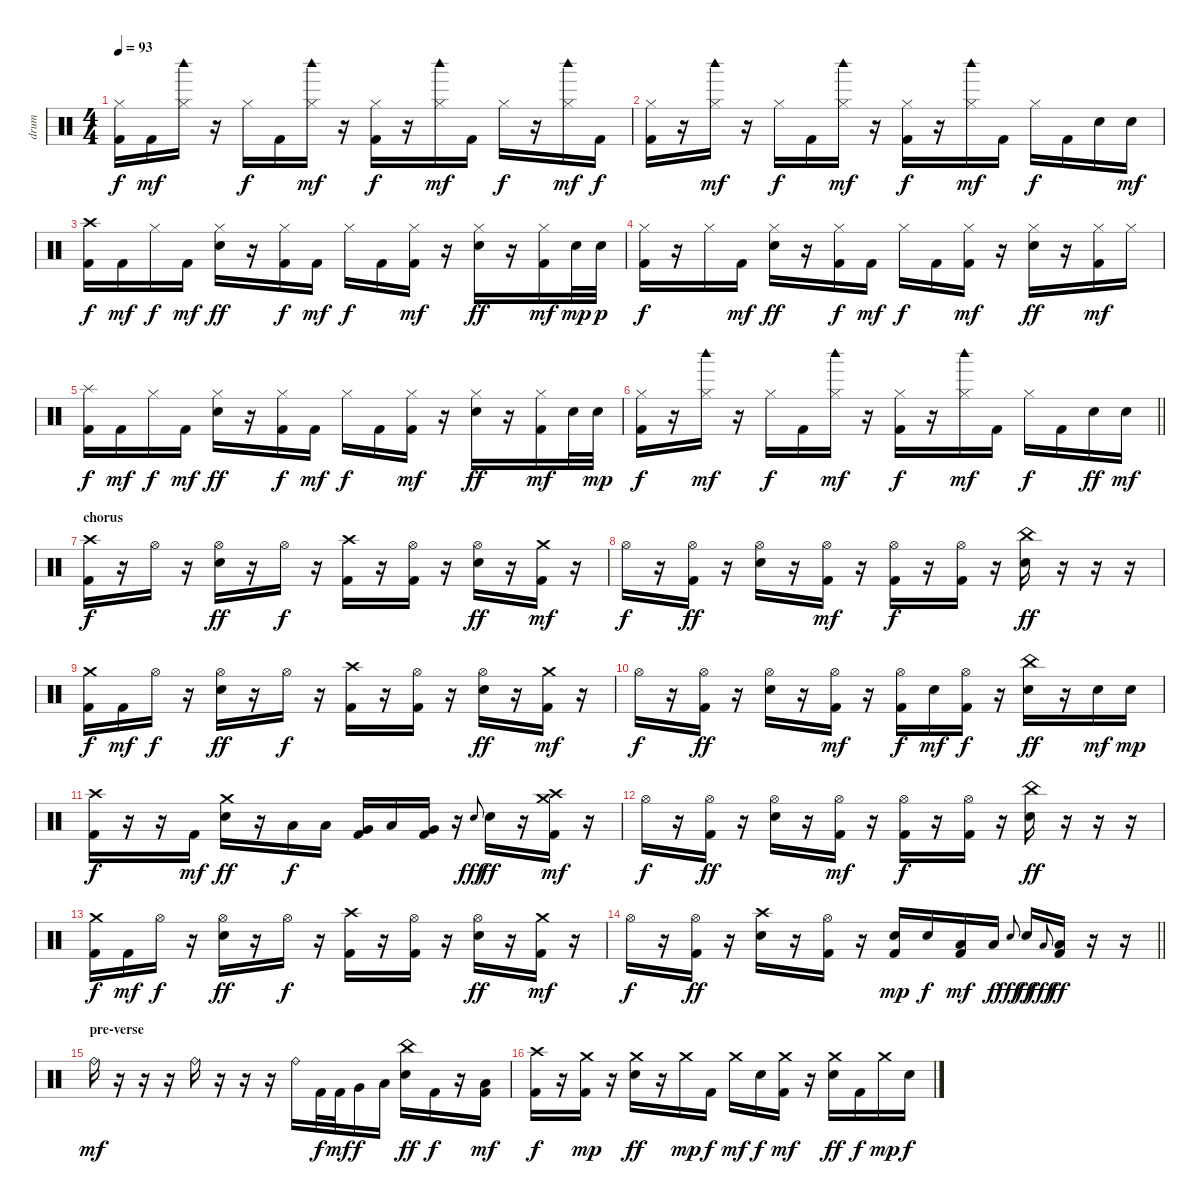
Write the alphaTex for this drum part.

\track ("drum" "drum") {instrument percussion}
\staff {score}
\articulation defaults
\ts (4 4)
\tempo 93
\clef neutral
\ks c
("Hi-Hat (closed)" "Kick (hit) 2").16{dy f} "Kick (hit) 2".16{dy mf} ("Hi-Hat (closed)" "Woodblock high (hit)").16 r.16 "Hi-Hat (closed)".16{dy f} "Kick (hit) 2".16 ("Hi-Hat (closed)" "Woodblock high (hit)").16{dy mf} r.16 ("Hi-Hat (closed)" "Kick (hit) 2").16{dy f} r.16 ("Hi-Hat (closed)" "Woodblock high (hit)").16{dy mf} "Kick (hit) 2".16 "Hi-Hat (closed)".16{dy f} r.16 ("Hi-Hat (closed)" "Woodblock high (hit)").16{dy mf} "Kick (hit) 2".16{dy f} |
("Hi-Hat (closed)" "Kick (hit) 2").16 r.16 ("Hi-Hat (closed)" "Woodblock high (hit)").16{dy mf} r.16 "Hi-Hat (closed)".16{dy f} "Kick (hit) 2".16 ("Hi-Hat (closed)" "Woodblock high (hit)").16{dy mf} r.16 ("Hi-Hat (closed)" "Kick (hit) 2").16{dy f} r.16 ("Hi-Hat (closed)" "Woodblock high (hit)").16{dy mf} "Kick (hit) 2".16 "Hi-Hat (closed)".16{dy f} "Kick (hit) 2".16 "Electric Snare (hit)".16 "Electric Snare (hit)".16{dy mf} |
("Crash high (hit)" "Kick (hit) 2").16{dy f} "Kick (hit) 2".16{dy mf} "Hi-Hat (closed)".16{dy f} "Kick (hit) 2".16{dy mf} ("Hi-Hat (closed)" "Electric Snare (hit)").16{dy ff} r.16 ("Hi-Hat (closed)" "Kick (hit) 2").16{dy f} "Kick (hit) 2".16{dy mf} "Hi-Hat (closed)".16{dy f} "Kick (hit) 2".16 ("Hi-Hat (closed)" "Kick (hit) 2").16{dy mf} r.16 ("Hi-Hat (closed)" "Electric Snare (hit)").16{dy ff} r.16 ("Hi-Hat (closed)" "Kick (hit) 2").16{dy mf} "Electric Snare (hit)".32{dy mp} "Electric Snare (hit)".32{dy p} |
("Hi-Hat (closed)" "Kick (hit) 2").16{dy f} r.16 "Hi-Hat (closed)".16 "Kick (hit) 2".16{dy mf} ("Hi-Hat (closed)" "Electric Snare (hit)").16{dy ff} r.16 ("Hi-Hat (closed)" "Kick (hit) 2").16{dy f} "Kick (hit) 2".16{dy mf} "Hi-Hat (closed)".16{dy f} "Kick (hit) 2".16 ("Hi-Hat (closed)" "Kick (hit) 2").16{dy mf} r.16 ("Hi-Hat (closed)" "Electric Snare (hit)").16{dy ff} r.16 ("Hi-Hat (closed)" "Kick (hit) 2").16{dy mf} "Hi-Hat (closed)".16 |
("Splash (hit)" "Kick (hit) 2").16{dy f} "Kick (hit) 2".16{dy mf} "Hi-Hat (closed)".16{dy f} "Kick (hit) 2".16{dy mf} ("Hi-Hat (closed)" "Electric Snare (hit)").16{dy ff} r.16 ("Hi-Hat (closed)" "Kick (hit) 2").16{dy f} "Kick (hit) 2".16{dy mf} "Hi-Hat (closed)".16{dy f} "Kick (hit) 2".16 ("Hi-Hat (closed)" "Kick (hit) 2").16{dy mf} r.16 ("Hi-Hat (closed)" "Electric Snare (hit)").16{dy ff} r.16 ("Hi-Hat (closed)" "Kick (hit) 2").16{dy mf} "Electric Snare (hit)".32 "Electric Snare (hit)".32{dy mp} |
\barLineRight lightlight
("Hi-Hat (closed)" "Kick (hit) 2").16{dy f} r.16 ("Hi-Hat (closed)" "Woodblock high (hit)").16{dy mf} r.16 "Hi-Hat (closed)".16{dy f} "Kick (hit) 2".16 ("Hi-Hat (closed)" "Woodblock high (hit)").16{dy mf} r.16 ("Hi-Hat (closed)" "Kick (hit) 2").16{dy f} r.16 ("Hi-Hat (closed)" "Woodblock high (hit)").16{dy mf} "Kick (hit) 2".16 "Hi-Hat (closed)".16{dy f} "Kick (hit) 2".16 "Electric Snare (hit)".16{dy ff} "Electric Snare (hit)".16{dy mf} |
\section ("" "chorus")
("Crash high (hit)" "Kick (hit) 2").16{dy f} r.16 "Hi-Hat (open)".16 r.16 ("Hi-Hat (open)" "Electric Snare (hit)").16{dy ff} r.16 "Hi-Hat (open)".16{dy f} r.16 ("Crash high (hit)" "Kick (hit) 2").16 r.16 ("Hi-Hat (open)" "Kick (hit) 2").16 r.16 ("Hi-Hat (open)" "Electric Snare (hit)").16{dy ff} r.16 ("Crash medium (hit)" "Kick (hit) 2").16{dy mf} r.16 |
"Hi-Hat (open)".16{dy f} r.16 ("Hi-Hat (open)" "Kick (hit) 2").16{dy ff} r.16 ("Hi-Hat (open)" "Electric Snare (hit)").16 r.16 ("Hi-Hat (open)" "Kick (hit) 2").16{dy mf} r.16 ("Hi-Hat (open)" "Kick (hit) 2").16{dy f} r.16 ("Hi-Hat (open)" "Kick (hit) 2").16 r.16 ("China (hit)" "Electric Snare (hit)").16{dy ff} r.16 r.16 r.16 |
("Crash medium (hit)" "Kick (hit) 2").16{dy f} "Kick (hit) 2".16{dy mf} "Hi-Hat (open)".16{dy f} r.16 ("Hi-Hat (open)" "Electric Snare (hit)").16{dy ff} r.16 "Hi-Hat (open)".16{dy f} r.16 ("Crash high (hit)" "Kick (hit) 2").16 r.16 ("Hi-Hat (open)" "Kick (hit) 2").16 r.16 ("Hi-Hat (open)" "Electric Snare (hit)").16{dy ff} r.16 ("Crash medium (hit)" "Kick (hit) 2").16{dy mf} r.16 |
"Hi-Hat (open)".16{dy f} r.16 ("Hi-Hat (open)" "Kick (hit) 2").16{dy ff} r.16 ("Hi-Hat (open)" "Electric Snare (hit)").16 r.16 ("Hi-Hat (open)" "Kick (hit) 2").16{dy mf} r.16 ("Hi-Hat (open)" "Kick (hit) 2").16{dy f} "Electric Snare (hit)".16{dy mf} ("Hi-Hat (open)" "Kick (hit) 2").16{dy f} r.16 ("China (hit)" "Electric Snare (hit)").16{dy ff} r.16 "Electric Snare (hit)".16{dy mf} "Electric Snare (hit)".16{dy mp} |
("Crash high (hit)" "Kick (hit) 2").16{dy f} r.16 r.16 "Kick (hit) 2".16{dy mf} ("Crash medium (hit)" "Electric Snare (hit)").16{dy ff} r.16 "Low Tom (hit)".16{dy f} "Low Tom (hit)".16 ("Very Low Tom (hit)" "Kick (hit) 2").16 "Low Tom (hit)".16 ("Very Low Tom (hit)" "Kick (hit) 2").16 r.16 "Electric Snare (hit)".8{gr onbeat dy fff} "Electric Snare (hit)".16{dy ff} r.16 ("Crash medium (hit)" "Crash high (hit)" "Kick (hit) 2").16{dy mf} r.16 |
"Hi-Hat (open)".16{dy f} r.16 ("Hi-Hat (open)" "Kick (hit) 2").16{dy ff} r.16 ("Hi-Hat (open)" "Electric Snare (hit)").16 r.16 ("Hi-Hat (open)" "Kick (hit) 2").16{dy mf} r.16 ("Hi-Hat (open)" "Kick (hit) 2").16{dy f} r.16 ("Hi-Hat (open)" "Kick (hit) 2").16 r.16 ("China (hit)" "Electric Snare (hit)").16{dy ff} r.16 r.16 r.16 |
("Crash medium (hit)" "Kick (hit) 2").16{dy f} "Kick (hit) 2".16{dy mf} "Hi-Hat (open)".16{dy f} r.16 ("Hi-Hat (open)" "Electric Snare (hit)").16{dy ff} r.16 "Hi-Hat (open)".16{dy f} r.16 ("Crash high (hit)" "Kick (hit) 2").16 r.16 ("Hi-Hat (open)" "Kick (hit) 2").16 r.16 ("Hi-Hat (open)" "Electric Snare (hit)").16{dy ff} r.16 ("Crash medium (hit)" "Kick (hit) 2").16{dy mf} r.16 |
\barLineRight lightlight "Hi-Hat (open)".16{dy f}
r.16 ("Hi-Hat (open)" "Kick (hit) 2").16{dy ff} r.16 ("Crash high (hit)" "Electric Snare (hit)").16 r.16 ("Hi-Hat (open)" "Kick (hit) 2").16 r.16 ("Electric Snare (hit)" "Kick (hit) 2").16{dy mp} "Electric Snare (hit)".16{dy f} ("Low Tom (hit)" "Kick (hit) 2").16{dy mf} "Low Tom (hit)".16{dy f} "Electric Snare (hit)".8{gr onbeat dy fff} "Electric Snare (hit)".16{dy ff} "Low Tom (hit)".8{gr onbeat dy fff} ("Low Tom (hit)" "Kick (hit) 2").16{dy ff} r.16 r.16 |
\section ("" "pre-verse")
"Ride (bell)".16{dy mf} r.16 r.16 r.16 "Ride (bell)".16 r.16 r.16 r.16 "Ride (bell)".16 "Kick (hit) 2".32{dy f} "Kick (hit) 2".32{dy mf} "Very Low Tom (hit)".16{dy f} "Low Tom (hit)".16 ("China (hit)" "Electric Snare (hit)").16{dy ff} "Kick (hit) 2".16{dy f} r.16 ("Low Tom (hit)" "Kick (hit) 2").16{dy mf} |
("Crash high (hit)" "Kick (hit) 2").16{dy f} r.16 ("Crash medium (hit)" "Kick (hit) 2").16{dy mp} r.16 ("Crash medium (hit)" "Electric Snare (hit)").16{dy ff} r.16 "Crash medium (hit)".16{dy mp} "Kick (hit) 2".16{dy f} "Crash medium (hit)".16{dy mf} "Electric Snare (hit)".16{dy f} ("Crash medium (hit)" "Kick (hit) 2").16{dy mf} r.16 ("Crash medium (hit)" "Electric Snare (hit)").16{dy ff} "Kick (hit) 2".16{dy f} "Crash medium (hit)".16{dy mp} "Electric Snare (hit)".16{dy f}
